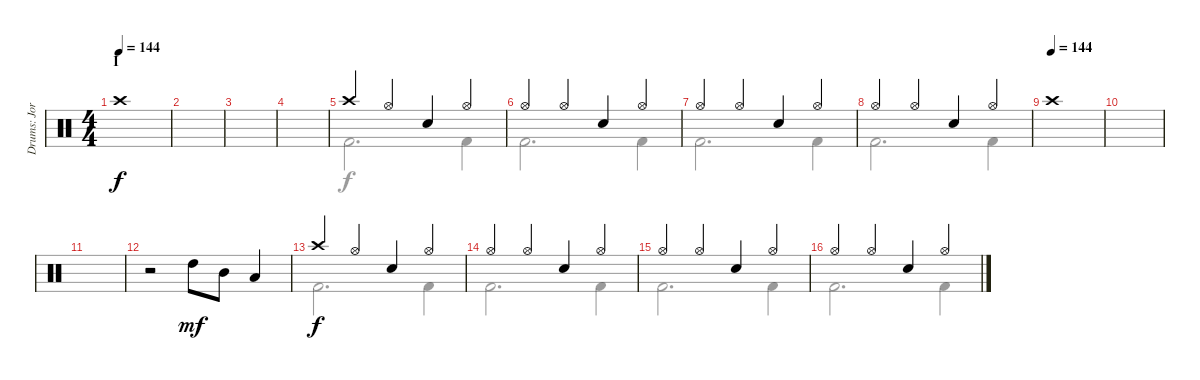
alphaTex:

\track ("Drums: Jorg" "Drums: Jor") {instrument percussion}
\staff {score}
\articulation defaults
\voice
\ts (4 4)
\section ("" "I")
\tempo 144
\clef neutral
\ks c "Crash high (hit)".1{dy f}
|
|
|
|
"Crash high (hit)".4 "Hi-Hat (open)".4 "Snare (hit) 2".4 "Hi-Hat (open)".4 |
"Hi-Hat (open)".4 "Hi-Hat (open)".4 "Snare (hit) 2".4 "Hi-Hat (open)".4 |
"Hi-Hat (open)".4 "Hi-Hat (open)".4 "Snare (hit) 2".4 "Hi-Hat (open)".4 |
"Hi-Hat (open)".4 "Hi-Hat (open)".4 "Snare (hit) 2".4 "Hi-Hat (open)".4 |
\tempo (144)
"Crash high (hit)".1 |
|
|
r.2 "High Tom (hit)".8{dy mf} "Mid Tom (hit)".8 "Low Tom (hit)".4 |
"Crash high (hit)".4{dy f} "Hi-Hat (open)".4 "Snare (hit) 2".4 "Hi-Hat (open)".4 |
"Hi-Hat (open)".4 "Hi-Hat (open)".4 "Snare (hit) 2".4 "Hi-Hat (open)".4 |
"Hi-Hat (open)".4 "Hi-Hat (open)".4 "Snare (hit) 2".4 "Hi-Hat (open)".4 |
"Hi-Hat (open)".4 "Hi-Hat (open)".4 "Snare (hit) 2".4 "Hi-Hat (open)".4
\voice
\clef neutral
\ottava regular
\simile none
\ks c
|
|
|
|
"Kick (hit) 2".2{d} "Kick (hit) 2".4 |
"Kick (hit) 2".2{d} "Kick (hit) 2".4 |
"Kick (hit) 2".2{d} "Kick (hit) 2".4 |
"Kick (hit) 2".2{d} "Kick (hit) 2".4 |
|
|
|
|
"Kick (hit) 2".2{d} "Kick (hit) 2".4 |
"Kick (hit) 2".2{d} "Kick (hit) 2".4 |
"Kick (hit) 2".2{d} "Kick (hit) 2".4 |
"Kick (hit) 2".2{d} "Kick (hit) 2".4
